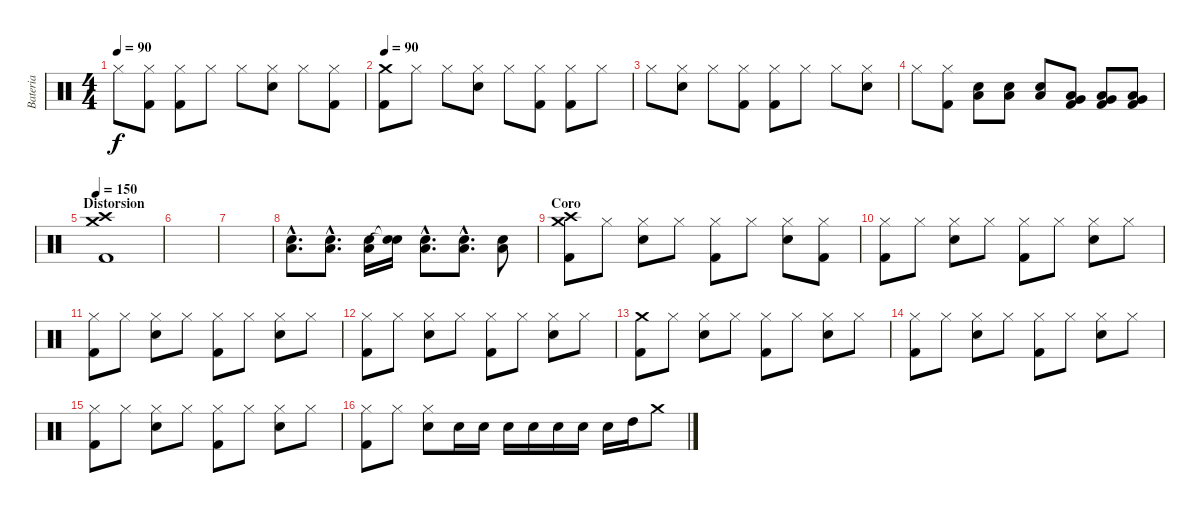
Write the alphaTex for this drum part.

\track ("Bateria" "Bateria") {instrument percussion}
\staff {score}
\articulation defaults
\ts (4 4)
\tempo 90
\clef neutral
\ks c "Hi-Hat (closed)".8{dy f}
("Hi-Hat (closed)" "Kick (hit) 2").8 ("Hi-Hat (closed)" "Kick (hit) 2").8 "Hi-Hat (closed)".8 "Hi-Hat (closed)".8 ("Hi-Hat (closed)" "Snare (hit) 2").8 "Hi-Hat (closed)".8 ("Hi-Hat (closed)" "Kick (hit) 2").8 |
\tempo 90
("Crash medium (hit)" "Kick (hit) 2").8 "Hi-Hat (closed)".8 "Hi-Hat (closed)".8 ("Hi-Hat (closed)" "Snare (hit) 2").8 "Hi-Hat (closed)".8 ("Hi-Hat (closed)" "Kick (hit) 2").8 ("Hi-Hat (closed)" "Kick (hit) 2").8 "Hi-Hat (closed)".8 |
"Hi-Hat (closed)".8 ("Hi-Hat (closed)" "Snare (hit) 2").8 "Hi-Hat (closed)".8 ("Hi-Hat (closed)" "Kick (hit) 2").8 ("Hi-Hat (closed)" "Kick (hit) 2").8 "Hi-Hat (closed)".8 "Hi-Hat (closed)".8 ("Hi-Hat (closed)" "Snare (hit) 2").8 |
"Hi-Hat (closed)".8 ("Hi-Hat (closed)" "Kick (hit) 2").8 ("Low Tom (hit)" "Snare (hit) 2").8 ("Low Tom (hit)" "Snare (hit) 2").8 ("Low Tom (hit)" "Snare (hit) 2").8 ("Low Tom (hit)" "Very Low Tom (hit)" "Kick (hit) 2").8 ("Low Tom (hit)" "Very Low Tom (hit)" "Kick (hit) 2").8 ("Low Tom (hit)" "Very Low Tom (hit)" "Kick (hit) 2").8 |
\section ("" "Distorsion")
\tempo 150
("Crash medium (hit)" "Crash high (hit)" "Kick (hit) 2").1 |
|
|
("Low Tom (hit)"{hac} "Snare (hit) 2"{hac}).8{d} ("Low Tom (hit)"{hac} "Snare (hit) 2"{hac}).8{d} ("Low Tom (hit)" "Snare (hit) 2").16 ("Snare (hit)"{t} "Snare (hit)"{t}).16 ("Low Tom (hit)"{hac} "Snare (hit) 2"{hac}).8{d} ("Low Tom (hit)"{hac} "Snare (hit) 2"{hac}).8{d} ("Low Tom (hit)" "Snare (hit) 2").8 |
\section ("" "Coro")
("Crash medium (hit)" "Crash high (hit)" "Kick (hit) 2").8 "Hi-Hat (closed)".8 ("Hi-Hat (closed)" "Snare (hit) 2").8 "Hi-Hat (closed)".8 ("Hi-Hat (closed)" "Kick (hit) 2").8 "Hi-Hat (closed)".8 ("Hi-Hat (closed)" "Snare (hit) 2").8 ("Hi-Hat (closed)" "Kick (hit) 2").8 |
("Hi-Hat (closed)" "Kick (hit) 2").8 "Hi-Hat (closed)".8 ("Hi-Hat (closed)" "Snare (hit) 2").8 "Hi-Hat (closed)".8 ("Hi-Hat (closed)" "Kick (hit) 2").8 "Hi-Hat (closed)".8 ("Hi-Hat (closed)" "Snare (hit) 2").8 "Hi-Hat (closed)".8 |
("Hi-Hat (closed)" "Kick (hit) 2").8 "Hi-Hat (closed)".8 ("Hi-Hat (closed)" "Snare (hit) 2").8 "Hi-Hat (closed)".8 ("Hi-Hat (closed)" "Kick (hit) 2").8 "Hi-Hat (closed)".8 ("Hi-Hat (closed)" "Snare (hit) 2").8 "Hi-Hat (closed)".8 |
("Hi-Hat (closed)" "Kick (hit) 2").8 "Hi-Hat (closed)".8 ("Hi-Hat (closed)" "Snare (hit) 2").8 "Hi-Hat (closed)".8 ("Hi-Hat (closed)" "Kick (hit) 2").8 "Hi-Hat (closed)".8 ("Hi-Hat (closed)" "Snare (hit) 2").8 "Hi-Hat (closed)".8 |
("Crash medium (hit)" "Kick (hit) 2").8 "Hi-Hat (closed)".8 ("Hi-Hat (closed)" "Snare (hit) 2").8 "Hi-Hat (closed)".8 ("Hi-Hat (closed)" "Kick (hit) 2").8 "Hi-Hat (closed)".8 ("Hi-Hat (closed)" "Snare (hit) 2").8 "Hi-Hat (closed)".8 |
("Hi-Hat (closed)" "Kick (hit) 2").8 "Hi-Hat (closed)".8 ("Hi-Hat (closed)" "Snare (hit) 2").8 "Hi-Hat (closed)".8 ("Hi-Hat (closed)" "Kick (hit) 2").8 "Hi-Hat (closed)".8 ("Hi-Hat (closed)" "Snare (hit) 2").8 "Hi-Hat (closed)".8 |
("Hi-Hat (closed)" "Kick (hit) 2").8 "Hi-Hat (closed)".8 ("Hi-Hat (closed)" "Snare (hit) 2").8 "Hi-Hat (closed)".8 ("Hi-Hat (closed)" "Kick (hit) 2").8 "Hi-Hat (closed)".8 ("Hi-Hat (closed)" "Snare (hit) 2").8 "Hi-Hat (closed)".8 |
("Hi-Hat (closed)" "Kick (hit) 2").8 "Hi-Hat (closed)".8 ("Hi-Hat (closed)" "Snare (hit) 2").8 "Snare (hit) 2".16 "Snare (hit) 2".16 "Snare (hit) 2".16 "Snare (hit) 2".16 "Snare (hit) 2".16 "Snare (hit) 2".16 "Snare (hit) 2".16 "High Tom (hit)".16 "Crash medium (hit)".8
